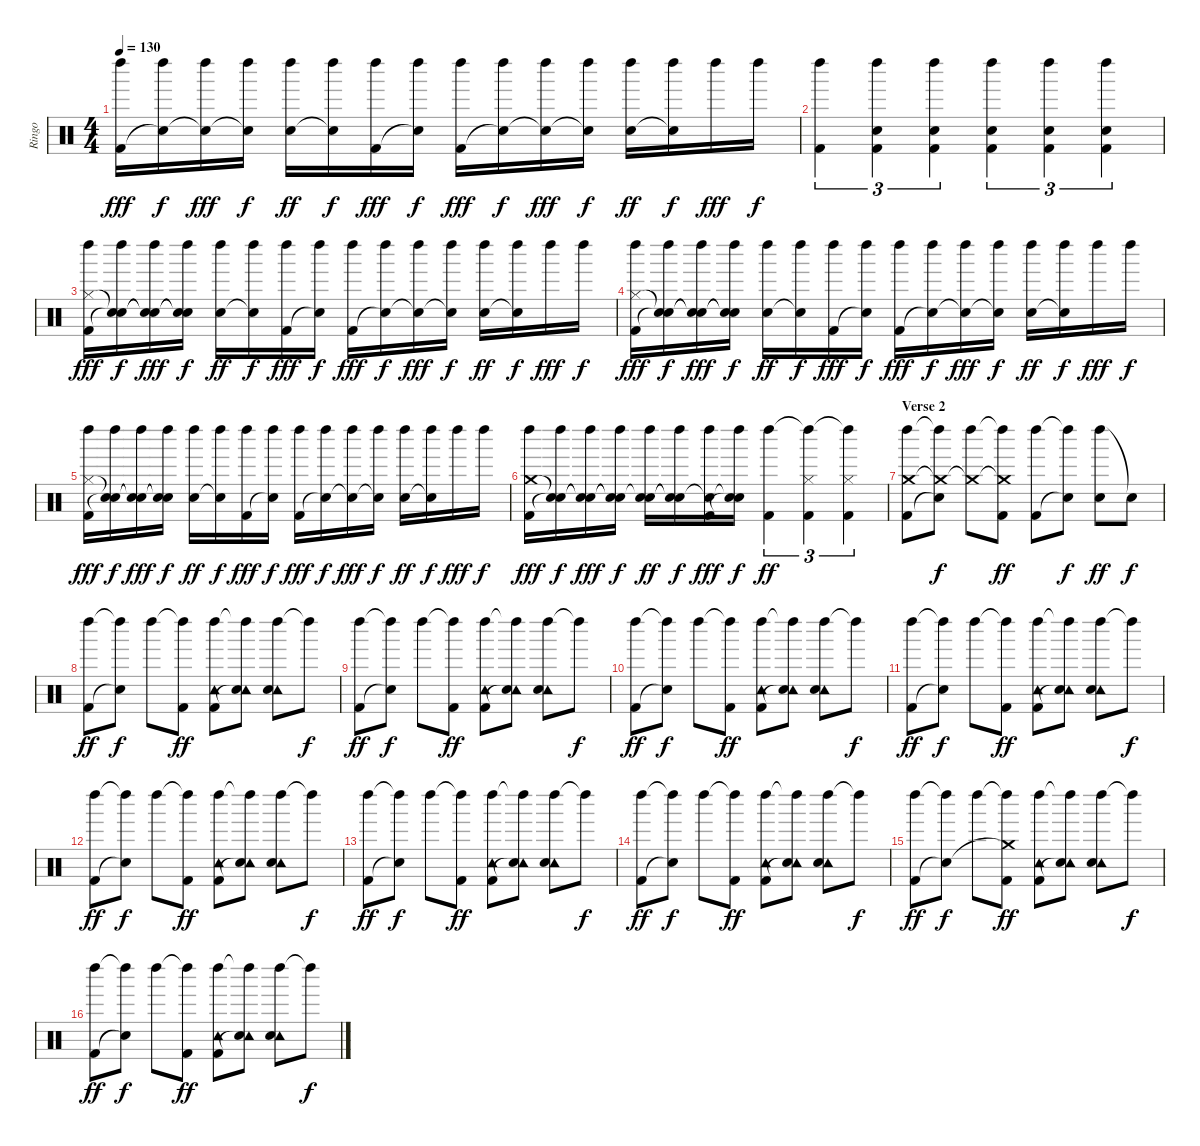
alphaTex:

\track ("Ringo" "Ringo") {instrument percussion}
\staff {score}
\articulation defaults
\ts (4 4)
\tempo 130
\clef neutral
\ks c
("Left Maraca (hit)" "Kick (hit) 2").16{dy fff} ("Left Maraca (hit)" "Snare (hit)"{t}).16{dy f} ("Left Maraca (hit)" "Snare (hit)"{t}).16{dy fff} ("Left Maraca (hit)" "Snare (hit)"{t}).16{dy f} ("Left Maraca (hit)" "Electric Snare (hit)").16{dy ff} ("Left Maraca (hit)" "Snare (hit)"{t}).16{dy f} ("Left Maraca (hit)" "Kick (hit) 2").16{dy fff} ("Left Maraca (hit)" "Snare (hit)"{t}).16{dy f} ("Left Maraca (hit)" "Kick (hit) 2").16{dy fff} ("Left Maraca (hit)" "Snare (hit)"{t}).16{dy f} ("Left Maraca (hit)" "Snare (hit)"{t}).16{dy fff} ("Left Maraca (hit)" "Snare (hit)"{t}).16{dy f} ("Left Maraca (hit)" "Electric Snare (hit)").16{dy ff} ("Left Maraca (hit)" "Snare (hit)"{t}).16{dy f} "Left Maraca (hit)".16{dy fff} "Left Maraca (hit)".16{dy f} |
("Left Maraca (hit)" "Kick (hit) 2").4{tu (3 2)} ("Left Maraca (hit)" "Electric Snare (hit)" "Kick (hit) 2").4{tu (3 2)} ("Left Maraca (hit)" "Electric Snare (hit)" "Kick (hit) 2").4{tu (3 2)} ("Left Maraca (hit)" "Electric Snare (hit)" "Kick (hit) 2").4{tu (3 2)} ("Left Maraca (hit)" "Electric Snare (hit)" "Kick (hit) 2").4{tu (3 2)} ("Left Maraca (hit)" "Electric Snare (hit)" "Kick (hit) 2").4{tu (3 2)} |
("Left Maraca (hit)" "Hi-Hat (closed)" "Kick (hit) 2").16{dy fff} ("Left Maraca (hit)" "Snare (hit)"{t} "Snare (hit)"{t}).16{dy f} ("Left Maraca (hit)" "Snare (hit)"{t} "Snare (hit)"{t}).16{dy fff} ("Left Maraca (hit)" "Snare (hit)"{t} "Snare (hit)"{t}).16{dy f} ("Left Maraca (hit)" "Electric Snare (hit)").16{dy ff} ("Left Maraca (hit)" "Snare (hit)"{t}).16{dy f} ("Left Maraca (hit)" "Kick (hit) 2").16{dy fff} ("Left Maraca (hit)" "Snare (hit)"{t}).16{dy f} ("Left Maraca (hit)" "Kick (hit) 2").16{dy fff} ("Left Maraca (hit)" "Snare (hit)"{t}).16{dy f} ("Left Maraca (hit)" "Snare (hit)"{t}).16{dy fff} ("Left Maraca (hit)" "Snare (hit)"{t}).16{dy f} ("Left Maraca (hit)" "Electric Snare (hit)").16{dy ff} ("Left Maraca (hit)" "Snare (hit)"{t}).16{dy f} "Left Maraca (hit)".16{dy fff} "Left Maraca (hit)".16{dy f} |
("Left Maraca (hit)" "Hi-Hat (closed)" "Kick (hit) 2").16{dy fff} ("Left Maraca (hit)" "Snare (hit)"{t} "Snare (hit)"{t}).16{dy f} ("Left Maraca (hit)" "Snare (hit)"{t} "Snare (hit)"{t}).16{dy fff} ("Left Maraca (hit)" "Snare (hit)"{t} "Snare (hit)"{t}).16{dy f} ("Left Maraca (hit)" "Electric Snare (hit)").16{dy ff} ("Left Maraca (hit)" "Snare (hit)"{t}).16{dy f} ("Left Maraca (hit)" "Kick (hit) 2").16{dy fff} ("Left Maraca (hit)" "Snare (hit)"{t}).16{dy f} ("Left Maraca (hit)" "Kick (hit) 2").16{dy fff} ("Left Maraca (hit)" "Snare (hit)"{t}).16{dy f} ("Left Maraca (hit)" "Snare (hit)"{t}).16{dy fff} ("Left Maraca (hit)" "Snare (hit)"{t}).16{dy f} ("Left Maraca (hit)" "Electric Snare (hit)").16{dy ff} ("Left Maraca (hit)" "Snare (hit)"{t}).16{dy f} "Left Maraca (hit)".16{dy fff} "Left Maraca (hit)".16{dy f} |
("Left Maraca (hit)" "Hi-Hat (closed)" "Kick (hit) 2").16{dy fff} ("Left Maraca (hit)" "Snare (hit)"{t} "Snare (hit)"{t}).16{dy f} ("Left Maraca (hit)" "Snare (hit)"{t} "Snare (hit)"{t}).16{dy fff} ("Left Maraca (hit)" "Snare (hit)"{t} "Snare (hit)"{t}).16{dy f} ("Left Maraca (hit)" "Electric Snare (hit)").16{dy ff} ("Left Maraca (hit)" "Snare (hit)"{t}).16{dy f} ("Left Maraca (hit)" "Kick (hit) 2").16{dy fff} ("Left Maraca (hit)" "Snare (hit)"{t}).16{dy f} ("Left Maraca (hit)" "Kick (hit) 2").16{dy fff} ("Left Maraca (hit)" "Snare (hit)"{t}).16{dy f} ("Left Maraca (hit)" "Snare (hit)"{t}).16{dy fff} ("Left Maraca (hit)" "Snare (hit)"{t}).16{dy f} ("Left Maraca (hit)" "Electric Snare (hit)").16{dy ff} ("Left Maraca (hit)" "Snare (hit)"{t}).16{dy f} "Left Maraca (hit)".16{dy fff} "Left Maraca (hit)".16{dy f} |
("Left Maraca (hit)" "Crash medium (hit)" "Kick (hit) 2").16{dy fff} ("Left Maraca (hit)" "Snare (hit)"{t} "Snare (hit)"{t}).16{dy f} ("Left Maraca (hit)" "Snare (hit)"{t} "Snare (hit)"{t}).16{dy fff} ("Left Maraca (hit)" "Snare (hit)"{t} "Snare (hit)"{t}).16{dy f} ("Left Maraca (hit)" "Snare (hit)"{t} "Electric Snare (hit)").16{dy ff} ("Left Maraca (hit)" "Snare (hit)"{t} "Snare (hit)"{t}).16{dy f} ("Left Maraca (hit)" "Snare (hit)"{t} "Kick (hit) 2").16{dy fff} ("Left Maraca (hit)" "Snare (hit)"{t} "Snare (hit)"{t}).16{dy f} ("Left Maraca (hit)" "Kick (hit) 2").4{tu (3 2) dy ff} ("Left Maraca (hit)"{t} "Hi-Hat (closed)" "Kick (hit) 2").4{tu (3 2)} ("Left Maraca (hit)"{t} "Hi-Hat (closed)" "Kick (hit) 2").4{tu (3 2)} |
\section ("" "Verse 2")
("Left Maraca (hit)" "Crash medium (hit)" "Kick (hit) 2").8 ("Left Maraca (hit)"{t} "Crash medium (hit)"{t} "Snare (hit)"{t}).8{dy f} ("Left Maraca (hit)" "Crash medium (hit)"{t}).8 ("Left Maraca (hit)"{t} "Crash medium (hit)"{t} "Kick (hit) 2").8{dy ff} ("Left Maraca (hit)" "Kick (hit) 2").8 ("Left Maraca (hit)"{t} "Snare (hit)"{t}).8{dy f} ("Left Maraca (hit)" "Electric Snare (hit)").8{dy ff} "Snare (hit)"{t}.8{dy f} |
("Left Maraca (hit)" "Kick (hit) 2").8{dy ff} ("Left Maraca (hit)"{t} "Snare (hit)"{t}).8{dy f} "Left Maraca (hit)".8 ("Left Maraca (hit)"{t} "Kick (hit) 2").8{dy ff} ("Left Maraca (hit)" "Tambourine (hit)" "Kick (hit) 2").8 ("Left Maraca (hit)"{t} "Tambourine (hit)" "Snare (hit)"{t}).8 ("Left Maraca (hit)" "Tambourine (hit)" "Electric Snare (hit)").8 "Left Maraca (hit)"{t}.8{dy f} |
("Left Maraca (hit)" "Kick (hit) 2").8{dy ff} ("Left Maraca (hit)"{t} "Snare (hit)"{t}).8{dy f} "Left Maraca (hit)".8 ("Left Maraca (hit)"{t} "Kick (hit) 2").8{dy ff} ("Left Maraca (hit)" "Tambourine (hit)" "Kick (hit) 2").8 ("Left Maraca (hit)"{t} "Tambourine (hit)" "Snare (hit)"{t}).8 ("Left Maraca (hit)" "Tambourine (hit)" "Electric Snare (hit)").8 "Left Maraca (hit)"{t}.8{dy f} |
("Left Maraca (hit)" "Kick (hit) 2").8{dy ff} ("Left Maraca (hit)"{t} "Snare (hit)"{t}).8{dy f} "Left Maraca (hit)".8 ("Left Maraca (hit)"{t} "Kick (hit) 2").8{dy ff} ("Left Maraca (hit)" "Tambourine (hit)" "Kick (hit) 2").8 ("Left Maraca (hit)"{t} "Tambourine (hit)" "Snare (hit)"{t}).8 ("Left Maraca (hit)" "Tambourine (hit)" "Electric Snare (hit)").8 "Left Maraca (hit)"{t}.8{dy f} |
("Left Maraca (hit)" "Kick (hit) 2").8{dy ff} ("Left Maraca (hit)"{t} "Snare (hit)"{t}).8{dy f} "Left Maraca (hit)".8 ("Left Maraca (hit)"{t} "Kick (hit) 2").8{dy ff} ("Left Maraca (hit)" "Tambourine (hit)" "Kick (hit) 2").8 ("Left Maraca (hit)"{t} "Tambourine (hit)" "Snare (hit)"{t}).8 ("Left Maraca (hit)" "Tambourine (hit)" "Electric Snare (hit)").8 "Left Maraca (hit)"{t}.8{dy f} |
("Left Maraca (hit)" "Kick (hit) 2").8{dy ff} ("Left Maraca (hit)"{t} "Snare (hit)"{t}).8{dy f} "Left Maraca (hit)".8 ("Left Maraca (hit)"{t} "Kick (hit) 2").8{dy ff} ("Left Maraca (hit)" "Tambourine (hit)" "Kick (hit) 2").8 ("Left Maraca (hit)"{t} "Tambourine (hit)" "Snare (hit)"{t}).8 ("Left Maraca (hit)" "Tambourine (hit)" "Electric Snare (hit)").8 "Left Maraca (hit)"{t}.8{dy f} |
("Left Maraca (hit)" "Kick (hit) 2").8{dy ff} ("Left Maraca (hit)"{t} "Snare (hit)"{t}).8{dy f} "Left Maraca (hit)".8 ("Left Maraca (hit)"{t} "Kick (hit) 2").8{dy ff} ("Left Maraca (hit)" "Tambourine (hit)" "Kick (hit) 2").8 ("Left Maraca (hit)"{t} "Tambourine (hit)" "Snare (hit)"{t}).8 ("Left Maraca (hit)" "Tambourine (hit)" "Electric Snare (hit)").8 "Left Maraca (hit)"{t}.8{dy f} |
("Left Maraca (hit)" "Kick (hit) 2").8{dy ff} ("Left Maraca (hit)"{t} "Snare (hit)"{t}).8{dy f} "Left Maraca (hit)".8 ("Left Maraca (hit)"{t} "Kick (hit) 2").8{dy ff} ("Left Maraca (hit)" "Tambourine (hit)" "Kick (hit) 2").8 ("Left Maraca (hit)"{t} "Tambourine (hit)" "Snare (hit)"{t}).8 ("Left Maraca (hit)" "Tambourine (hit)" "Electric Snare (hit)").8 "Left Maraca (hit)"{t}.8{dy f} |
("Left Maraca (hit)" "Kick (hit) 2").8{dy ff} ("Left Maraca (hit)"{t} "Snare (hit)"{t}).8{dy f} "Left Maraca (hit)".8 ("Left Maraca (hit)"{t} "Crash medium (hit)"{t} "Kick (hit) 2").8{dy ff} ("Left Maraca (hit)" "Tambourine (hit)" "Kick (hit) 2").8 ("Left Maraca (hit)"{t} "Tambourine (hit)" "Snare (hit)"{t}).8 ("Left Maraca (hit)" "Tambourine (hit)" "Electric Snare (hit)").8 "Left Maraca (hit)"{t}.8{dy f} |
("Left Maraca (hit)" "Kick (hit) 2").8{dy ff} ("Left Maraca (hit)"{t} "Snare (hit)"{t}).8{dy f} "Left Maraca (hit)".8 ("Left Maraca (hit)"{t} "Kick (hit) 2").8{dy ff} ("Left Maraca (hit)" "Tambourine (hit)" "Kick (hit) 2").8 ("Left Maraca (hit)"{t} "Tambourine (hit)" "Snare (hit)"{t}).8 ("Left Maraca (hit)" "Tambourine (hit)" "Electric Snare (hit)").8 "Left Maraca (hit)"{t}.8{dy f}
